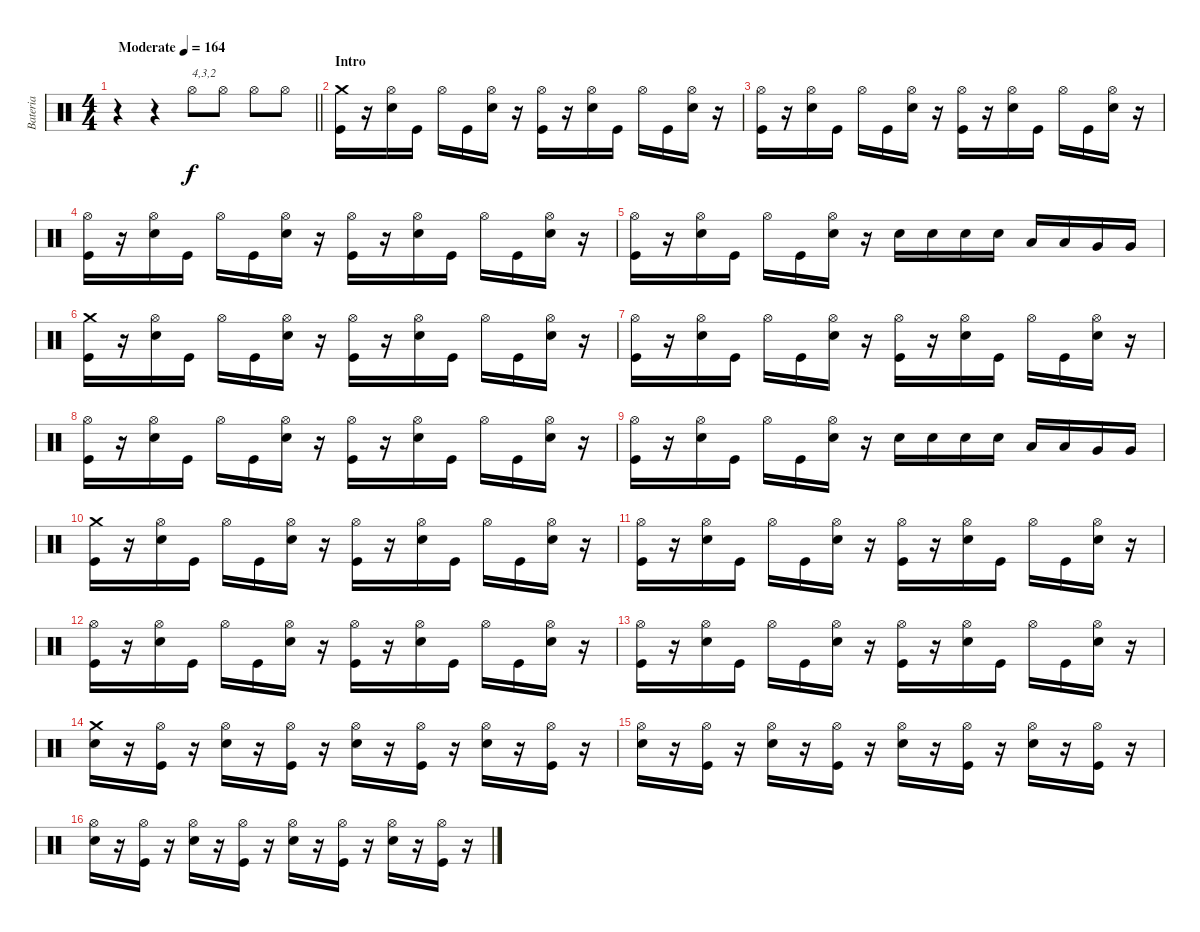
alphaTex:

\track ("Bateria" "Bateria") {instrument percussion}
\staff {score}
\articulation defaults
\ts (4 4)
\tempo (164 "Moderate")
\clef neutral
\barLineRight lightlight
\ks c
r.4{dy f} r.4 "Hi-Hat (open)".8{txt "4,3,2"} "Hi-Hat (open)".8 "Hi-Hat (open)".8 "Hi-Hat (open)".8 |
\section ("" "Intro")
("Crash medium (hit)" "Kick (hit)").16 r.16 ("Hi-Hat (open)" "Snare (hit) 2").16 "Kick (hit)".16 "Hi-Hat (open)".16 "Kick (hit)".16 ("Hi-Hat (open)" "Snare (hit) 2").16 r.16 ("Hi-Hat (open)" "Kick (hit)").16 r.16 ("Hi-Hat (open)" "Snare (hit) 2").16 "Kick (hit)".16 "Hi-Hat (open)".16 "Kick (hit)".16 ("Hi-Hat (open)" "Snare (hit) 2").16 r.16 |
("Hi-Hat (open)" "Kick (hit)").16 r.16 ("Hi-Hat (open)" "Snare (hit) 2").16 "Kick (hit)".16 "Hi-Hat (open)".16 "Kick (hit)".16 ("Hi-Hat (open)" "Snare (hit) 2").16 r.16 ("Hi-Hat (open)" "Kick (hit)").16 r.16 ("Hi-Hat (open)" "Snare (hit) 2").16 "Kick (hit)".16 "Hi-Hat (open)".16 "Kick (hit)".16 ("Hi-Hat (open)" "Snare (hit) 2").16 r.16 |
("Hi-Hat (open)" "Kick (hit)").16 r.16 ("Hi-Hat (open)" "Snare (hit) 2").16 "Kick (hit)".16 "Hi-Hat (open)".16 "Kick (hit)".16 ("Hi-Hat (open)" "Snare (hit) 2").16 r.16 ("Hi-Hat (open)" "Kick (hit)").16 r.16 ("Hi-Hat (open)" "Snare (hit) 2").16 "Kick (hit)".16 "Hi-Hat (open)".16 "Kick (hit)".16 ("Hi-Hat (open)" "Snare (hit) 2").16 r.16 |
("Hi-Hat (open)" "Kick (hit)").16 r.16 ("Hi-Hat (open)" "Snare (hit) 2").16 "Kick (hit)".16 "Hi-Hat (open)".16 "Kick (hit)".16 ("Hi-Hat (open)" "Snare (hit) 2").16 r.16 "Snare (hit) 2".16 "Snare (hit) 2".16 "Snare (hit) 2".16 "Snare (hit) 2".16 "Low Tom (hit)".16 "Low Tom (hit)".16 "Very Low Tom (hit)".16 "Very Low Tom (hit)".16 |
("Crash medium (hit)" "Kick (hit)").16 r.16 ("Hi-Hat (open)" "Snare (hit) 2").16 "Kick (hit)".16 "Hi-Hat (open)".16 "Kick (hit)".16 ("Hi-Hat (open)" "Snare (hit) 2").16 r.16 ("Hi-Hat (open)" "Kick (hit)").16 r.16 ("Hi-Hat (open)" "Snare (hit) 2").16 "Kick (hit)".16 "Hi-Hat (open)".16 "Kick (hit)".16 ("Hi-Hat (open)" "Snare (hit) 2").16 r.16 |
("Hi-Hat (open)" "Kick (hit)").16 r.16 ("Hi-Hat (open)" "Snare (hit) 2").16 "Kick (hit)".16 "Hi-Hat (open)".16 "Kick (hit)".16 ("Hi-Hat (open)" "Snare (hit) 2").16 r.16 ("Hi-Hat (open)" "Kick (hit)").16 r.16 ("Hi-Hat (open)" "Snare (hit) 2").16 "Kick (hit)".16 "Hi-Hat (open)".16 "Kick (hit)".16 ("Hi-Hat (open)" "Snare (hit) 2").16 r.16 |
("Hi-Hat (open)" "Kick (hit)").16 r.16 ("Hi-Hat (open)" "Snare (hit) 2").16 "Kick (hit)".16 "Hi-Hat (open)".16 "Kick (hit)".16 ("Hi-Hat (open)" "Snare (hit) 2").16 r.16 ("Hi-Hat (open)" "Kick (hit)").16 r.16 ("Hi-Hat (open)" "Snare (hit) 2").16 "Kick (hit)".16 "Hi-Hat (open)".16 "Kick (hit)".16 ("Hi-Hat (open)" "Snare (hit) 2").16 r.16 |
("Hi-Hat (open)" "Kick (hit)").16 r.16 ("Hi-Hat (open)" "Snare (hit) 2").16 "Kick (hit)".16 "Hi-Hat (open)".16 "Kick (hit)".16 ("Hi-Hat (open)" "Snare (hit) 2").16 r.16 "Snare (hit) 2".16 "Snare (hit) 2".16 "Snare (hit) 2".16 "Snare (hit) 2".16 "Low Tom (hit)".16 "Low Tom (hit)".16 "Very Low Tom (hit)".16 "Very Low Tom (hit)".16 |
("Crash medium (hit)" "Kick (hit)").16 r.16 ("Hi-Hat (open)" "Snare (hit) 2").16 "Kick (hit)".16 "Hi-Hat (open)".16 "Kick (hit)".16 ("Hi-Hat (open)" "Snare (hit) 2").16 r.16 ("Hi-Hat (open)" "Kick (hit)").16 r.16 ("Hi-Hat (open)" "Snare (hit) 2").16 "Kick (hit)".16 "Hi-Hat (open)".16 "Kick (hit)".16 ("Hi-Hat (open)" "Snare (hit) 2").16 r.16 |
("Hi-Hat (open)" "Kick (hit)").16 r.16 ("Hi-Hat (open)" "Snare (hit) 2").16 "Kick (hit)".16 "Hi-Hat (open)".16 "Kick (hit)".16 ("Hi-Hat (open)" "Snare (hit) 2").16 r.16 ("Hi-Hat (open)" "Kick (hit)").16 r.16 ("Hi-Hat (open)" "Snare (hit) 2").16 "Kick (hit)".16 "Hi-Hat (open)".16 "Kick (hit)".16 ("Hi-Hat (open)" "Snare (hit) 2").16 r.16 |
("Hi-Hat (open)" "Kick (hit)").16 r.16 ("Hi-Hat (open)" "Snare (hit) 2").16 "Kick (hit)".16 "Hi-Hat (open)".16 "Kick (hit)".16 ("Hi-Hat (open)" "Snare (hit) 2").16 r.16 ("Hi-Hat (open)" "Kick (hit)").16 r.16 ("Hi-Hat (open)" "Snare (hit) 2").16 "Kick (hit)".16 "Hi-Hat (open)".16 "Kick (hit)".16 ("Hi-Hat (open)" "Snare (hit) 2").16 r.16 |
("Hi-Hat (open)" "Kick (hit)").16 r.16 ("Hi-Hat (open)" "Snare (hit) 2").16 "Kick (hit)".16 "Hi-Hat (open)".16 "Kick (hit)".16 ("Hi-Hat (open)" "Snare (hit) 2").16 r.16 ("Hi-Hat (open)" "Kick (hit)").16 r.16 ("Hi-Hat (open)" "Snare (hit) 2").16 "Kick (hit)".16 "Hi-Hat (open)".16 "Kick (hit)".16 ("Hi-Hat (open)" "Snare (hit) 2").16 r.16 |
("Crash medium (hit)" "Snare (hit) 2").16 r.16 ("Hi-Hat (open)" "Kick (hit)").16 r.16 ("Hi-Hat (open)" "Snare (hit) 2").16 r.16 ("Hi-Hat (open)" "Kick (hit)").16 r.16 ("Hi-Hat (open)" "Snare (hit) 2").16 r.16 ("Hi-Hat (open)" "Kick (hit)").16 r.16 ("Hi-Hat (open)" "Snare (hit) 2").16 r.16 ("Hi-Hat (open)" "Kick (hit)").16 r.16 |
("Hi-Hat (open)" "Snare (hit) 2").16 r.16 ("Hi-Hat (open)" "Kick (hit)").16 r.16 ("Hi-Hat (open)" "Snare (hit) 2").16 r.16 ("Hi-Hat (open)" "Kick (hit)").16 r.16 ("Hi-Hat (open)" "Snare (hit) 2").16 r.16 ("Hi-Hat (open)" "Kick (hit)").16 r.16 ("Hi-Hat (open)" "Snare (hit) 2").16 r.16 ("Hi-Hat (open)" "Kick (hit)").16 r.16 |
("Hi-Hat (open)" "Snare (hit) 2").16 r.16 ("Hi-Hat (open)" "Kick (hit)").16 r.16 ("Hi-Hat (open)" "Snare (hit) 2").16 r.16 ("Hi-Hat (open)" "Kick (hit)").16 r.16 ("Hi-Hat (open)" "Snare (hit) 2").16 r.16 ("Hi-Hat (open)" "Kick (hit)").16 r.16 ("Hi-Hat (open)" "Snare (hit) 2").16 r.16 ("Hi-Hat (open)" "Kick (hit)").16 r.16
